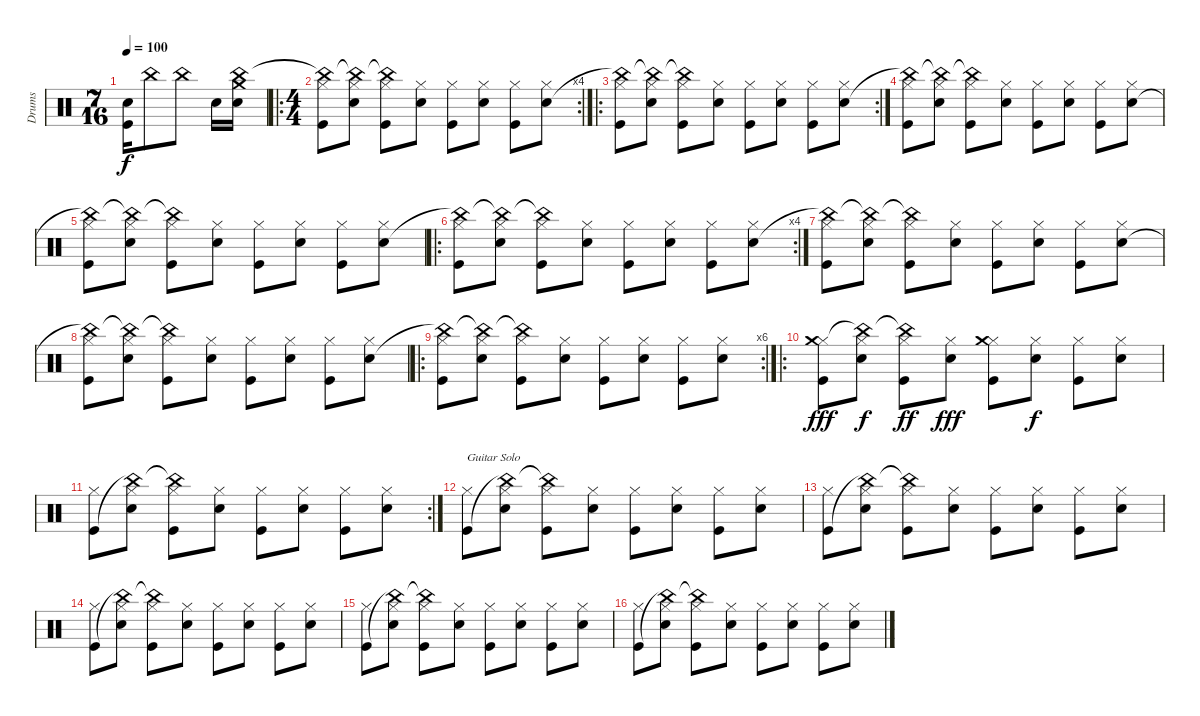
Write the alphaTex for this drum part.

\track ("Drums" "Drums") {instrument percussion}
\staff {score}
\articulation defaults
\ts (7 16)
\tempo 100
\clef neutral
\ks c
("Snare (hit) 2" "Kick (hit)").16{dy f} "China (hit)".8 "China (hit)".8 "Snare (hit) 2".16 ("Crash medium (hit)" "China (hit)" "Snare (hit) 2").16 |
\ro
\rc 4
\ts (4 4)
("Hi-Hat (closed)" "China (hit)"{t} "Kick (hit)").8 ("Hi-Hat (closed)" "China (hit)"{t} "Snare (hit) 2").8 ("Hi-Hat (closed)" "China (hit)"{t} "Kick (hit)").8 ("Hi-Hat (closed)" "Snare (hit) 2").8 ("Hi-Hat (closed)" "Kick (hit)").8 ("Hi-Hat (closed)" "Snare (hit) 2").8 ("Hi-Hat (closed)" "Kick (hit)").8 ("Hi-Hat (closed)" "Snare (hit) 2").8 |
\ro
\rc 2
("Hi-Hat (closed)" "China (hit)"{t} "Kick (hit)").8 ("Hi-Hat (closed)" "China (hit)"{t} "Snare (hit) 2").8 ("Hi-Hat (closed)" "China (hit)"{t} "Kick (hit)").8 ("Hi-Hat (closed)" "Snare (hit) 2").8 ("Hi-Hat (closed)" "Kick (hit)").8 ("Hi-Hat (closed)" "Snare (hit) 2").8 ("Hi-Hat (closed)" "Kick (hit)").8 ("Hi-Hat (closed)" "Snare (hit) 2").8 |
("Hi-Hat (closed)" "China (hit)"{t} "Kick (hit)").8 ("Hi-Hat (closed)" "China (hit)"{t} "Snare (hit) 2").8 ("Hi-Hat (closed)" "China (hit)"{t} "Kick (hit)").8 ("Hi-Hat (closed)" "Snare (hit) 2").8 ("Hi-Hat (closed)" "Kick (hit)").8 ("Hi-Hat (closed)" "Snare (hit) 2").8 ("Hi-Hat (closed)" "Kick (hit)").8 ("Hi-Hat (closed)" "Snare (hit) 2").8 |
("Hi-Hat (closed)" "China (hit)"{t} "Kick (hit)").8 ("Hi-Hat (closed)" "China (hit)"{t} "Snare (hit) 2").8 ("Hi-Hat (closed)" "China (hit)"{t} "Kick (hit)").8 ("Hi-Hat (closed)" "Snare (hit) 2").8 ("Hi-Hat (closed)" "Kick (hit)").8 ("Hi-Hat (closed)" "Snare (hit) 2").8 ("Hi-Hat (closed)" "Kick (hit)").8 ("Hi-Hat (closed)" "Snare (hit) 2").8 |
\ro
\rc 4
("Hi-Hat (closed)" "China (hit)"{t} "Kick (hit)").8 ("Hi-Hat (closed)" "China (hit)"{t} "Snare (hit) 2").8 ("Hi-Hat (closed)" "China (hit)"{t} "Kick (hit)").8 ("Hi-Hat (closed)" "Snare (hit) 2").8 ("Hi-Hat (closed)" "Kick (hit)").8 ("Hi-Hat (closed)" "Snare (hit) 2").8 ("Hi-Hat (closed)" "Kick (hit)").8 ("Hi-Hat (closed)" "Snare (hit) 2").8 |
("Hi-Hat (closed)" "China (hit)"{t} "Kick (hit)").8 ("Hi-Hat (closed)" "China (hit)"{t} "Snare (hit) 2").8 ("Hi-Hat (closed)" "China (hit)"{t} "Kick (hit)").8 ("Hi-Hat (closed)" "Snare (hit) 2").8 ("Hi-Hat (closed)" "Kick (hit)").8 ("Hi-Hat (closed)" "Snare (hit) 2").8 ("Hi-Hat (closed)" "Kick (hit)").8 ("Hi-Hat (closed)" "Snare (hit) 2").8 |
("Hi-Hat (closed)" "China (hit)"{t} "Kick (hit)").8 ("Hi-Hat (closed)" "China (hit)"{t} "Snare (hit) 2").8 ("Hi-Hat (closed)" "China (hit)"{t} "Kick (hit)").8 ("Hi-Hat (closed)" "Snare (hit) 2").8 ("Hi-Hat (closed)" "Kick (hit)").8 ("Hi-Hat (closed)" "Snare (hit) 2").8 ("Hi-Hat (closed)" "Kick (hit)").8 ("Hi-Hat (closed)" "Snare (hit) 2").8 |
\ro
\rc 6
("Hi-Hat (closed)" "China (hit)"{t} "Kick (hit)").8 ("Hi-Hat (closed)" "China (hit)"{t} "Snare (hit) 2").8 ("Hi-Hat (closed)" "China (hit)"{t} "Kick (hit)").8 ("Hi-Hat (closed)" "Snare (hit) 2").8 ("Hi-Hat (closed)" "Kick (hit)").8 ("Hi-Hat (closed)" "Snare (hit) 2").8 ("Hi-Hat (closed)" "Kick (hit)").8 ("Hi-Hat (closed)" "Snare (hit) 2").8 |
\ro
("Hi-Hat (closed)" "Crash medium (hit)" "Kick (hit)").8{dy fff} ("Hi-Hat (closed)" "China (hit)"{t} "Snare (hit) 2").8{dy f} ("Hi-Hat (closed)" "China (hit)"{t} "Kick (hit)").8{dy ff} ("Hi-Hat (closed)" "Snare (hit) 2").8{dy fff} ("Hi-Hat (closed)" "Crash medium (hit)" "Kick (hit)").8 ("Hi-Hat (closed)" "Snare (hit) 2").8{dy f} ("Hi-Hat (closed)" "Kick (hit)").8 ("Hi-Hat (closed)" "Snare (hit) 2").8 |
\rc 2
("Hi-Hat (closed)" "Kick (hit)").8 ("Hi-Hat (closed)" "China (hit)"{t} "Snare (hit) 2").8 ("Hi-Hat (closed)" "China (hit)"{t} "Kick (hit)").8 ("Hi-Hat (closed)" "Snare (hit) 2").8 ("Hi-Hat (closed)" "Kick (hit)").8 ("Hi-Hat (closed)" "Snare (hit) 2").8 ("Hi-Hat (closed)" "Kick (hit)").8 ("Hi-Hat (closed)" "Snare (hit) 2").8 |
("Hi-Hat (closed)" "Kick (hit)").8{txt "Guitar Solo"} ("Hi-Hat (closed)" "China (hit)"{t} "Snare (hit) 2").8 ("Hi-Hat (closed)" "China (hit)"{t} "Kick (hit)").8 ("Hi-Hat (closed)" "Snare (hit) 2").8 ("Hi-Hat (closed)" "Kick (hit)").8 ("Hi-Hat (closed)" "Snare (hit) 2").8 ("Hi-Hat (closed)" "Kick (hit)").8 ("Hi-Hat (closed)" "Snare (hit) 2").8 |
("Hi-Hat (closed)" "Kick (hit)").8 ("Hi-Hat (closed)" "China (hit)"{t} "Snare (hit) 2").8 ("Hi-Hat (closed)" "China (hit)"{t} "Kick (hit)").8 ("Hi-Hat (closed)" "Snare (hit) 2").8 ("Hi-Hat (closed)" "Kick (hit)").8 ("Hi-Hat (closed)" "Snare (hit) 2").8 ("Hi-Hat (closed)" "Kick (hit)").8 ("Hi-Hat (closed)" "Snare (hit) 2").8 |
("Hi-Hat (closed)" "Kick (hit)").8 ("Hi-Hat (closed)" "China (hit)"{t} "Snare (hit) 2").8 ("Hi-Hat (closed)" "China (hit)"{t} "Kick (hit)").8 ("Hi-Hat (closed)" "Snare (hit) 2").8 ("Hi-Hat (closed)" "Kick (hit)").8 ("Hi-Hat (closed)" "Snare (hit) 2").8 ("Hi-Hat (closed)" "Kick (hit)").8 ("Hi-Hat (closed)" "Snare (hit) 2").8 |
("Hi-Hat (closed)" "Kick (hit)").8 ("Hi-Hat (closed)" "China (hit)"{t} "Snare (hit) 2").8 ("Hi-Hat (closed)" "China (hit)"{t} "Kick (hit)").8 ("Hi-Hat (closed)" "Snare (hit) 2").8 ("Hi-Hat (closed)" "Kick (hit)").8 ("Hi-Hat (closed)" "Snare (hit) 2").8 ("Hi-Hat (closed)" "Kick (hit)").8 ("Hi-Hat (closed)" "Snare (hit) 2").8 |
("Hi-Hat (closed)" "Kick (hit)").8 ("Hi-Hat (closed)" "China (hit)"{t} "Snare (hit) 2").8 ("Hi-Hat (closed)" "China (hit)"{t} "Kick (hit)").8 ("Hi-Hat (closed)" "Snare (hit) 2").8 ("Hi-Hat (closed)" "Kick (hit)").8 ("Hi-Hat (closed)" "Snare (hit) 2").8 ("Hi-Hat (closed)" "Kick (hit)").8 ("Hi-Hat (closed)" "Snare (hit) 2").8
